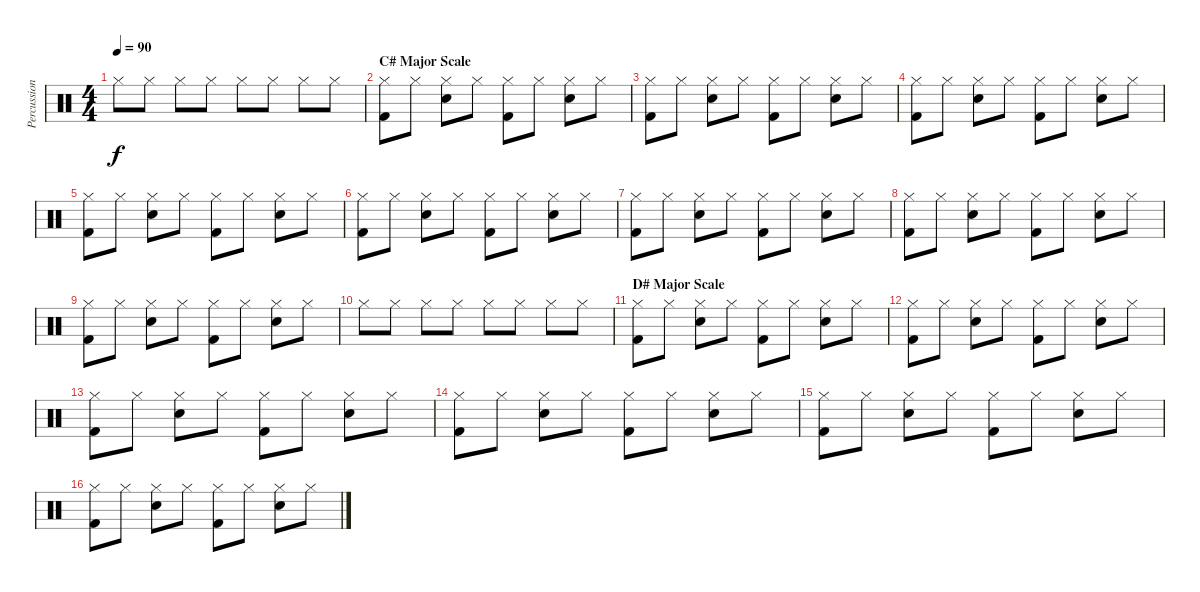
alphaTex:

\track ("Percussion" "Percussion") {instrument percussion}
\staff {score}
\articulation defaults
\ts (4 4)
\tempo 90
\clef neutral
\ks c "Hi-Hat (closed)".8{dy f} "Hi-Hat (closed)".8 "Hi-Hat (closed)".8 "Hi-Hat (closed)".8 "Hi-Hat (closed)".8 "Hi-Hat (closed)".8 "Hi-Hat (closed)".8 "Hi-Hat (closed)".8
|
\section ("" "C# Major Scale")
("Kick (hit) 2" "Hi-Hat (closed)").8 "Hi-Hat (closed)".8 ("Snare (hit) 2" "Hi-Hat (closed)").8 "Hi-Hat (closed)".8 ("Kick (hit) 2" "Hi-Hat (closed)").8 "Hi-Hat (closed)".8 ("Snare (hit) 2" "Hi-Hat (closed)").8 "Hi-Hat (closed)".8 |
("Kick (hit) 2" "Hi-Hat (closed)").8 "Hi-Hat (closed)".8 ("Snare (hit) 2" "Hi-Hat (closed)").8 "Hi-Hat (closed)".8 ("Kick (hit) 2" "Hi-Hat (closed)").8 "Hi-Hat (closed)".8 ("Snare (hit) 2" "Hi-Hat (closed)").8 "Hi-Hat (closed)".8 |
("Kick (hit) 2" "Hi-Hat (closed)").8 "Hi-Hat (closed)".8 ("Snare (hit) 2" "Hi-Hat (closed)").8 "Hi-Hat (closed)".8 ("Kick (hit) 2" "Hi-Hat (closed)").8 "Hi-Hat (closed)".8 ("Snare (hit) 2" "Hi-Hat (closed)").8 "Hi-Hat (closed)".8 |
("Kick (hit) 2" "Hi-Hat (closed)").8 "Hi-Hat (closed)".8 ("Snare (hit) 2" "Hi-Hat (closed)").8 "Hi-Hat (closed)".8 ("Kick (hit) 2" "Hi-Hat (closed)").8 "Hi-Hat (closed)".8 ("Snare (hit) 2" "Hi-Hat (closed)").8 "Hi-Hat (closed)".8 |
("Kick (hit) 2" "Hi-Hat (closed)").8 "Hi-Hat (closed)".8 ("Snare (hit) 2" "Hi-Hat (closed)").8 "Hi-Hat (closed)".8 ("Kick (hit) 2" "Hi-Hat (closed)").8 "Hi-Hat (closed)".8 ("Snare (hit) 2" "Hi-Hat (closed)").8 "Hi-Hat (closed)".8 |
("Kick (hit) 2" "Hi-Hat (closed)").8 "Hi-Hat (closed)".8 ("Snare (hit) 2" "Hi-Hat (closed)").8 "Hi-Hat (closed)".8 ("Kick (hit) 2" "Hi-Hat (closed)").8 "Hi-Hat (closed)".8 ("Snare (hit) 2" "Hi-Hat (closed)").8 "Hi-Hat (closed)".8 |
("Kick (hit) 2" "Hi-Hat (closed)").8 "Hi-Hat (closed)".8 ("Snare (hit) 2" "Hi-Hat (closed)").8 "Hi-Hat (closed)".8 ("Kick (hit) 2" "Hi-Hat (closed)").8 "Hi-Hat (closed)".8 ("Snare (hit) 2" "Hi-Hat (closed)").8 "Hi-Hat (closed)".8 |
("Kick (hit) 2" "Hi-Hat (closed)").8 "Hi-Hat (closed)".8 ("Snare (hit) 2" "Hi-Hat (closed)").8 "Hi-Hat (closed)".8 ("Kick (hit) 2" "Hi-Hat (closed)").8 "Hi-Hat (closed)".8 ("Snare (hit) 2" "Hi-Hat (closed)").8 "Hi-Hat (closed)".8 |
"Hi-Hat (closed)".8 "Hi-Hat (closed)".8 "Hi-Hat (closed)".8 "Hi-Hat (closed)".8 "Hi-Hat (closed)".8 "Hi-Hat (closed)".8 "Hi-Hat (closed)".8 "Hi-Hat (closed)".8 |
\section ("" "D# Major Scale")
("Kick (hit) 2" "Hi-Hat (closed)").8 "Hi-Hat (closed)".8 ("Snare (hit) 2" "Hi-Hat (closed)").8 "Hi-Hat (closed)".8 ("Kick (hit) 2" "Hi-Hat (closed)").8 "Hi-Hat (closed)".8 ("Snare (hit) 2" "Hi-Hat (closed)").8 "Hi-Hat (closed)".8 |
("Kick (hit) 2" "Hi-Hat (closed)").8 "Hi-Hat (closed)".8 ("Snare (hit) 2" "Hi-Hat (closed)").8 "Hi-Hat (closed)".8 ("Kick (hit) 2" "Hi-Hat (closed)").8 "Hi-Hat (closed)".8 ("Snare (hit) 2" "Hi-Hat (closed)").8 "Hi-Hat (closed)".8 |
("Kick (hit) 2" "Hi-Hat (closed)").8 "Hi-Hat (closed)".8 ("Snare (hit) 2" "Hi-Hat (closed)").8 "Hi-Hat (closed)".8 ("Kick (hit) 2" "Hi-Hat (closed)").8 "Hi-Hat (closed)".8 ("Snare (hit) 2" "Hi-Hat (closed)").8 "Hi-Hat (closed)".8 |
("Kick (hit) 2" "Hi-Hat (closed)").8 "Hi-Hat (closed)".8 ("Snare (hit) 2" "Hi-Hat (closed)").8 "Hi-Hat (closed)".8 ("Kick (hit) 2" "Hi-Hat (closed)").8 "Hi-Hat (closed)".8 ("Snare (hit) 2" "Hi-Hat (closed)").8 "Hi-Hat (closed)".8 |
("Kick (hit) 2" "Hi-Hat (closed)").8 "Hi-Hat (closed)".8 ("Snare (hit) 2" "Hi-Hat (closed)").8 "Hi-Hat (closed)".8 ("Kick (hit) 2" "Hi-Hat (closed)").8 "Hi-Hat (closed)".8 ("Snare (hit) 2" "Hi-Hat (closed)").8 "Hi-Hat (closed)".8 |
("Kick (hit) 2" "Hi-Hat (closed)").8 "Hi-Hat (closed)".8 ("Snare (hit) 2" "Hi-Hat (closed)").8 "Hi-Hat (closed)".8 ("Kick (hit) 2" "Hi-Hat (closed)").8 "Hi-Hat (closed)".8 ("Snare (hit) 2" "Hi-Hat (closed)").8 "Hi-Hat (closed)".8
